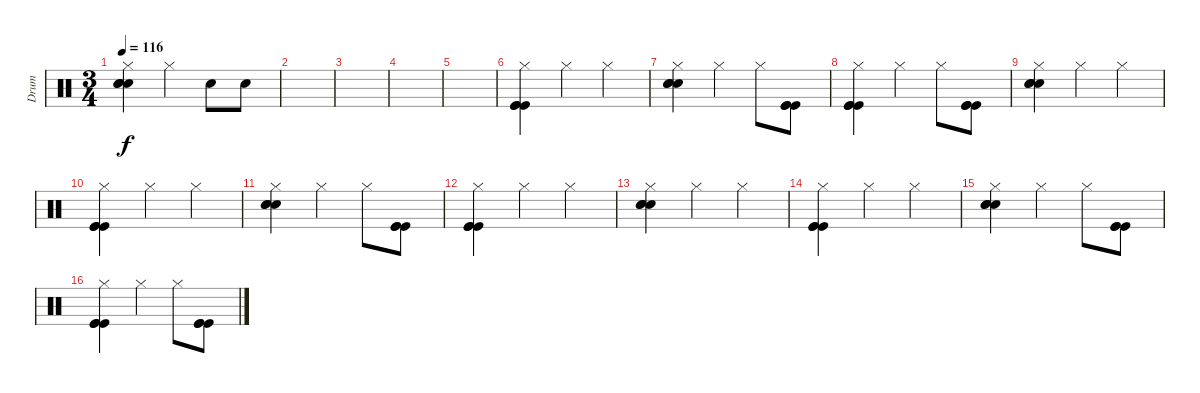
\track ("Drum" "Drum") {instrument percussion}
\staff {score}
\articulation defaults
\ts (3 4)
\tempo 116
\clef neutral
\ks c
("Hi-Hat (closed)" "Electric Snare (hit)" "Electric Snare (hit)" "Electric Snare (hit)").4{dy f} "Hi-Hat (closed)".4 "Electric Snare (hit)".8 "Electric Snare (hit)".8 |
|
|
|
|
("Hi-Hat (closed)" "Kick (hit)" "Kick (hit)" "Kick (hit)").4 "Hi-Hat (closed)".4 "Hi-Hat (closed)".4 |
("Hi-Hat (closed)" "Electric Snare (hit)" "Electric Snare (hit)" "Electric Snare (hit)").4 "Hi-Hat (closed)".4 "Hi-Hat (closed)".8 ("Kick (hit)" "Kick (hit)" "Kick (hit)").8 |
("Hi-Hat (closed)" "Kick (hit)" "Kick (hit)" "Kick (hit)").4 "Hi-Hat (closed)".4 "Hi-Hat (closed)".8 ("Kick (hit)" "Kick (hit)" "Kick (hit)").8 |
("Hi-Hat (closed)" "Electric Snare (hit)" "Electric Snare (hit)" "Electric Snare (hit)").4 "Hi-Hat (closed)".4 "Hi-Hat (closed)".4 |
("Hi-Hat (closed)" "Kick (hit)" "Kick (hit)" "Kick (hit)").4 "Hi-Hat (closed)".4 "Hi-Hat (closed)".4 |
("Hi-Hat (closed)" "Electric Snare (hit)" "Electric Snare (hit)" "Electric Snare (hit)").4 "Hi-Hat (closed)".4 "Hi-Hat (closed)".8 ("Kick (hit)" "Kick (hit)" "Kick (hit)").8 |
("Hi-Hat (closed)" "Kick (hit)" "Kick (hit)" "Kick (hit)").4 "Hi-Hat (closed)".4 "Hi-Hat (closed)".4 |
("Hi-Hat (closed)" "Electric Snare (hit)" "Electric Snare (hit)" "Electric Snare (hit)").4 "Hi-Hat (closed)".4 "Hi-Hat (closed)".4 |
("Hi-Hat (closed)" "Kick (hit)" "Kick (hit)" "Kick (hit)").4 "Hi-Hat (closed)".4 "Hi-Hat (closed)".4 |
("Hi-Hat (closed)" "Electric Snare (hit)" "Electric Snare (hit)" "Electric Snare (hit)").4 "Hi-Hat (closed)".4 "Hi-Hat (closed)".8 ("Kick (hit)" "Kick (hit)" "Kick (hit)").8 |
("Hi-Hat (closed)" "Kick (hit)" "Kick (hit)" "Kick (hit)").4 "Hi-Hat (closed)".4 "Hi-Hat (closed)".8 ("Kick (hit)" "Kick (hit)" "Kick (hit)").8
